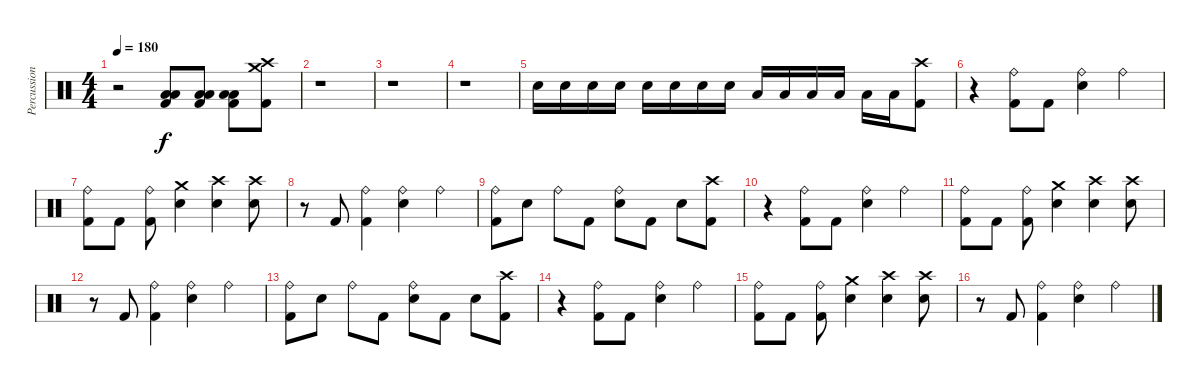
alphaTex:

\track ("Percussion" "Percussion") {instrument percussion}
\staff {score}
\articulation defaults
\ts (4 4)
\tempo 180
\clef neutral
\ks c
r.2{dy ppp} ("Low Tom (hit)" "Low Floor Tom (hit)" "Kick (hit) 2").8{dy f} ("Low Tom (hit)" "Low Floor Tom (hit)" "Kick (hit) 2").8 ("Low Tom (hit)" "Low Floor Tom (hit)" "Kick (hit) 2").8 ("Crash high (hit)" "Crash medium (hit)" "Kick (hit) 2").8 |
r.1 |
r.1 |
r.1 |
"Electric Snare (hit)".16 "Electric Snare (hit)".16 "Electric Snare (hit)".16 "Electric Snare (hit)".16 "Electric Snare (hit)".16 "Electric Snare (hit)".16 "Electric Snare (hit)".16 "Electric Snare (hit)".16 "Low Tom (hit)".16 "Low Tom (hit)".16 "Low Tom (hit)".16 "Low Tom (hit)".16 "Low Floor Tom (hit)".16 "Low Floor Tom (hit)".16 ("Crash high (hit)" "Kick (hit) 2").8 |
r.4 ("Ride (bell)" "Kick (hit) 2").8 "Kick (hit) 2".8 ("Ride (bell)" "Electric Snare (hit)").4 "Ride (bell)".4 |
("Ride (bell)" "Kick (hit) 2").8 "Kick (hit) 2".8 ("Ride (bell)" "Kick (hit) 2").8 ("Crash medium (hit)" "Electric Snare (hit)").4 ("Crash high (hit)" "Electric Snare (hit)").4 ("Crash high (hit)" "Electric Snare (hit)").8 |
r.8 "Kick (hit) 2".8 ("Ride (bell)" "Kick (hit) 2").4 ("Ride (bell)" "Electric Snare (hit)").4 "Ride (bell)".4 |
("Ride (bell)" "Kick (hit) 2").8 "Electric Snare (hit)".8 "Ride (bell)".8 "Kick (hit) 2".8 ("Ride (bell)" "Electric Snare (hit)").8 "Kick (hit) 2".8 "Electric Snare (hit)".8 ("Crash high (hit)" "Kick (hit) 2").8 |
r.4 ("Ride (bell)" "Kick (hit) 2").8 "Kick (hit) 2".8 ("Ride (bell)" "Electric Snare (hit)").4 "Ride (bell)".4 |
("Ride (bell)" "Kick (hit) 2").8 "Kick (hit) 2".8 ("Ride (bell)" "Kick (hit) 2").8 ("Crash medium (hit)" "Electric Snare (hit)").4 ("Crash high (hit)" "Electric Snare (hit)").4 ("Crash high (hit)" "Electric Snare (hit)").8 |
r.8 "Kick (hit) 2".8 ("Ride (bell)" "Kick (hit) 2").4 ("Ride (bell)" "Electric Snare (hit)").4 "Ride (bell)".4 |
("Ride (bell)" "Kick (hit) 2").8 "Electric Snare (hit)".8 "Ride (bell)".8 "Kick (hit) 2".8 ("Ride (bell)" "Electric Snare (hit)").8 "Kick (hit) 2".8 "Electric Snare (hit)".8 ("Crash high (hit)" "Kick (hit) 2").8 |
r.4 ("Ride (bell)" "Kick (hit) 2").8 "Kick (hit) 2".8 ("Ride (bell)" "Electric Snare (hit)").4 "Ride (bell)".4 |
("Ride (bell)" "Kick (hit) 2").8 "Kick (hit) 2".8 ("Ride (bell)" "Kick (hit) 2").8 ("Crash medium (hit)" "Electric Snare (hit)").4 ("Crash high (hit)" "Electric Snare (hit)").4 ("Crash high (hit)" "Electric Snare (hit)").8 |
r.8 "Kick (hit) 2".8 ("Ride (bell)" "Kick (hit) 2").4 ("Ride (bell)" "Electric Snare (hit)").4 "Ride (bell)".4
